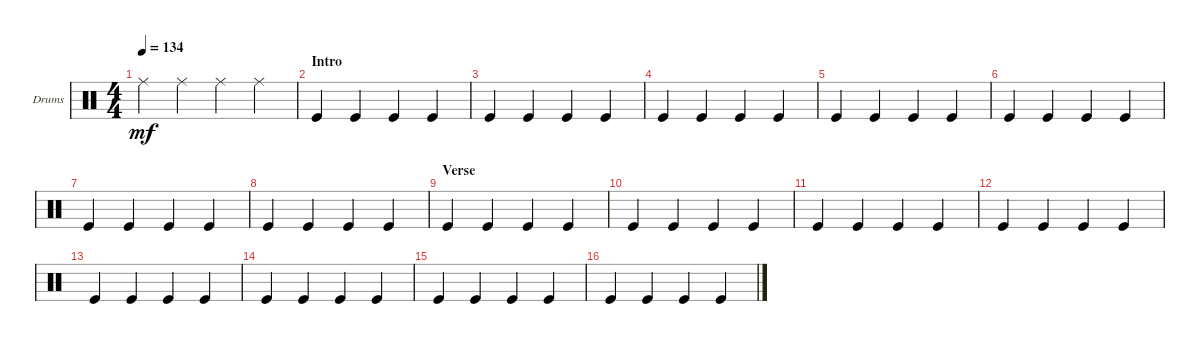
\defaultSystemsLayout 4
\bracketExtendMode groupsimilarinstruments
\firstSystemTrackNameOrientation horizontal
\otherSystemsTrackNameOrientation horizontal
\track ("Drumkit" "Drums") {instrument percussion}
\staff {score}
\articulation defaults
\ts (4 4)
\tempo 134
\clef neutral
\scale
0.474178
\ks c "Ride (middle)".4{dy mf} "Ride (middle)".4 "Ride (middle)".4 "Ride (middle)".4
|
\section ("" "Intro")
\scale
0.262911 "Kick (hit)".4 "Kick (hit)".4 "Kick (hit)".4 "Kick (hit)".4 |
\scale
0.333333 "Kick (hit)".4 "Kick (hit)".4 "Kick (hit)".4 "Kick (hit)".4 |
\scale
0.333333 "Kick (hit)".4 "Kick (hit)".4 "Kick (hit)".4 "Kick (hit)".4 |
\scale
0.333333 "Kick (hit)".4 "Kick (hit)".4 "Kick (hit)".4 "Kick (hit)".4 |
\scale
0.333333 "Kick (hit)".4 "Kick (hit)".4 "Kick (hit)".4 "Kick (hit)".4 |
\scale
0.333333 "Kick (hit)".4 "Kick (hit)".4 "Kick (hit)".4 "Kick (hit)".4 |
\scale
0.333333 "Kick (hit)".4 "Kick (hit)".4 "Kick (hit)".4 "Kick (hit)".4 |
\section ("" "Verse")
\scale
0.333333 "Kick (hit)".4 "Kick (hit)".4 "Kick (hit)".4 "Kick (hit)".4 |
\scale
0.333333 "Kick (hit)".4 "Kick (hit)".4 "Kick (hit)".4 "Kick (hit)".4 |
\scale
0.333333 "Kick (hit)".4 "Kick (hit)".4 "Kick (hit)".4 "Kick (hit)".4 |
\scale
0.333333 "Kick (hit)".4 "Kick (hit)".4 "Kick (hit)".4 "Kick (hit)".4 |
\scale
0.333333 "Kick (hit)".4 "Kick (hit)".4 "Kick (hit)".4 "Kick (hit)".4 |
\scale
0.333333 "Kick (hit)".4 "Kick (hit)".4 "Kick (hit)".4 "Kick (hit)".4 |
\scale
0.333333 "Kick (hit)".4 "Kick (hit)".4 "Kick (hit)".4 "Kick (hit)".4 |
\scale
0.333333 "Kick (hit)".4 "Kick (hit)".4 "Kick (hit)".4 "Kick (hit)".4
